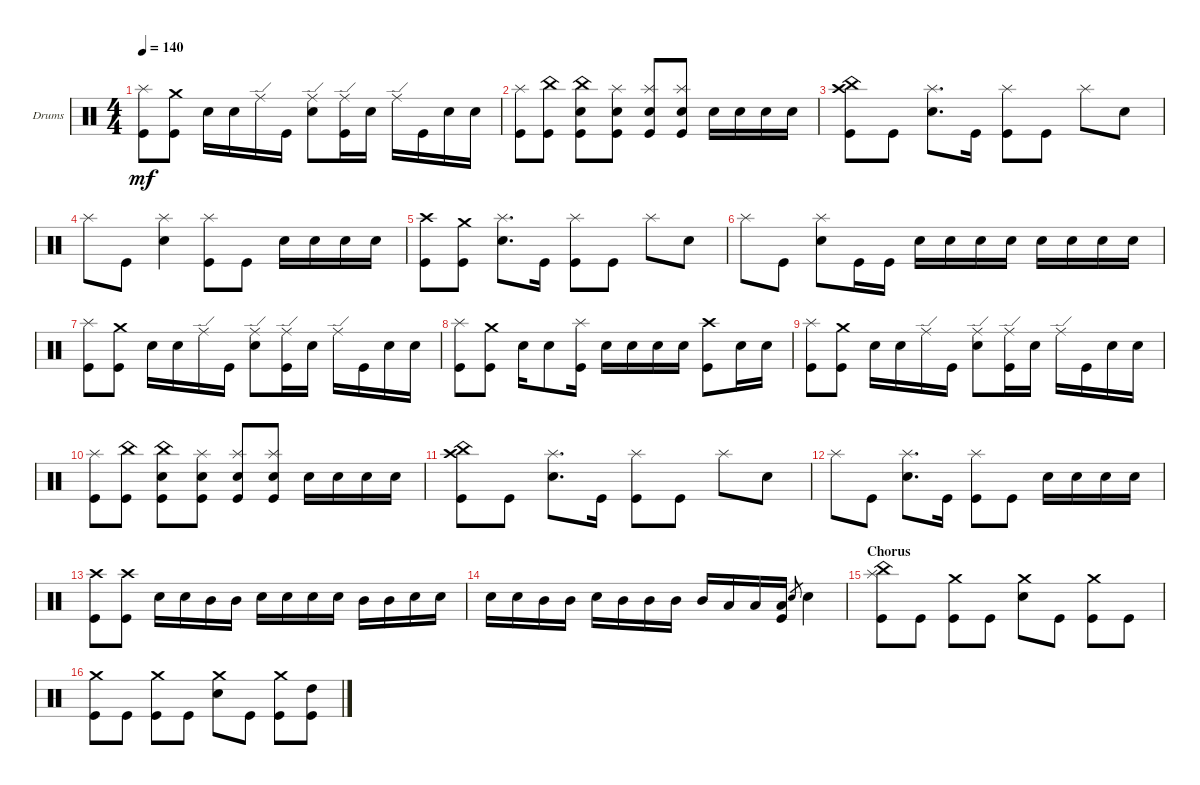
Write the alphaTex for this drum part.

\bracketExtendMode groupsimilarinstruments
\firstSystemTrackNameOrientation horizontal
\otherSystemsTrackNameOrientation horizontal
\track ("Drumkit" "Drums") {instrument percussion}
\staff {score}
\articulation defaults
\ts (4 4)
\tempo 140
\clef neutral
\ks c
("Kick (hit)" "Splash (hit)").8{dy mf} ("Kick (hit)" "Crash medium (hit)").8 "Snare (hit) 2".16 "Snare (hit) 2".16 "Ride (edge)".16 "Kick (hit)".16 ("Snare (hit) 2" "Ride (edge)").8 ("Kick (hit)" "Ride (edge)").16 "Snare (hit) 2".16 "Ride (edge)".16 "Kick (hit)".16 "Snare (hit) 2".16 "Snare (hit) 2".16 |
("Kick (hit)" "Splash (hit)").8 ("Kick (hit)" "China (hit)").8 ("Kick (hit)" "China (hit)" "Snare (hit) 2").8 ("Kick (hit)" "Snare (hit) 2" "Splash (hit)").8 ("Kick (hit)" "Snare (hit) 2" "Splash (hit)").8 ("Kick (hit)" "Snare (hit) 2" "Splash (hit)").8 "Snare (hit) 2".16 "Snare (hit) 2".16 "Snare (hit) 2".16 "Snare (hit) 2".16 |
("Kick (hit)" "China (hit)" "Crash high (hit)").8 "Kick (hit)".8 ("Snare (hit) 2" "Splash (hit)").8{d} "Kick (hit)".16 ("Kick (hit)" "Splash (hit)").8 "Kick (hit)".8 "Splash (hit)".8 "Snare (hit) 2".8 |
"Splash (hit)".8 "Kick (hit)".8 ("Snare (hit) 2" "Splash (hit)").4 ("Kick (hit)" "Splash (hit)").8 "Kick (hit)".8 "Snare (hit) 2".16 "Snare (hit) 2".16 "Snare (hit) 2".16 "Snare (hit) 2".16 |
("Kick (hit)" "Crash high (hit)").8 ("Kick (hit)" "Crash medium (hit)").8 ("Snare (hit) 2" "Splash (hit)").8{d} "Kick (hit)".16 ("Kick (hit)" "Splash (hit)").8 "Kick (hit)".8 "Splash (hit)".8 "Snare (hit) 2".8 |
"Splash (hit)".8 "Kick (hit)".8 ("Snare (hit) 2" "Splash (hit)").8 "Kick (hit)".16 "Kick (hit)".16 "Snare (hit) 2".16 "Snare (hit) 2".16 "Snare (hit) 2".16 "Snare (hit) 2".16 "Snare (hit) 2".16 "Snare (hit) 2".16 "Snare (hit) 2".16 "Snare (hit) 2".16 |
("Kick (hit)" "Splash (hit)").8 ("Kick (hit)" "Crash medium (hit)").8 "Snare (hit) 2".16 "Snare (hit) 2".16 "Ride (edge)".16 "Kick (hit)".16 ("Snare (hit) 2" "Ride (edge)").8 ("Kick (hit)" "Ride (edge)").16 "Snare (hit) 2".16 "Ride (edge)".16 "Kick (hit)".16 "Snare (hit) 2".16 "Snare (hit) 2".16 |
("Kick (hit)" "Splash (hit)").8 ("Kick (hit)" "Crash medium (hit)").8 "Snare (hit) 2".16 "Snare (hit) 2".8 ("Kick (hit)" "Splash (hit)").16 "Snare (hit) 2".16 "Snare (hit) 2".16 "Snare (hit) 2".16 "Snare (hit) 2".16 ("Crash high (hit)" "Kick (hit)").8 "Snare (hit) 2".16 "Snare (hit) 2".16 |
("Kick (hit)" "Splash (hit)").8 ("Kick (hit)" "Crash medium (hit)").8 "Snare (hit) 2".16 "Snare (hit) 2".16 "Ride (edge)".16 "Kick (hit)".16 ("Snare (hit) 2" "Ride (edge)").8 ("Kick (hit)" "Ride (edge)").16 "Snare (hit) 2".16 "Ride (edge)".16 "Kick (hit)".16 "Snare (hit) 2".16 "Snare (hit) 2".16 |
("Kick (hit)" "Splash (hit)").8 ("Kick (hit)" "China (hit)").8 ("Kick (hit)" "China (hit)" "Snare (hit) 2").8 ("Kick (hit)" "Snare (hit) 2" "Splash (hit)").8 ("Kick (hit)" "Snare (hit) 2" "Splash (hit)").8 ("Kick (hit)" "Snare (hit) 2" "Splash (hit)").8 "Snare (hit) 2".16 "Snare (hit) 2".16 "Snare (hit) 2".16 "Snare (hit) 2".16 |
("Kick (hit)" "China (hit)" "Crash high (hit)").8 "Kick (hit)".8 ("Snare (hit) 2" "Splash (hit)").8{d} "Kick (hit)".16 ("Kick (hit)" "Splash (hit)").8 "Kick (hit)".8 "Splash (hit)".8 "Snare (hit) 2".8 |
"Splash (hit)".8 "Kick (hit)".8 ("Snare (hit) 2" "Splash (hit)").8{d} "Kick (hit)".16 ("Kick (hit)" "Splash (hit)").8 "Kick (hit)".8 "Snare (hit) 2".16 "Snare (hit) 2".16 "Snare (hit) 2".16 "Snare (hit) 2".16 |
("Kick (hit)" "Crash high (hit)").8 ("Kick (hit)" "Crash high (hit)").8 "Snare (hit) 2".16 "Snare (hit) 2".16 "Mid Tom (hit)".16 "Mid Tom (hit)".16 "Snare (hit) 2".16 "Snare (hit) 2".16 "Snare (hit) 2".16 "Snare (hit) 2".16 "Mid Tom (hit)".16 "Mid Tom (hit)".16 "Snare (hit) 2".16 "Snare (hit) 2".16 |
"Snare (hit) 2".16 "Snare (hit) 2".16 "Mid Tom (hit)".16 "Mid Tom (hit)".16 "Snare (hit) 2".16 "Mid Tom (hit)".16 "Mid Tom (hit)".16 "Mid Tom (hit)".16 "Mid Tom (hit)".16 "Low Tom (hit)".16 "Low Tom (hit)".16 ("Kick (hit)" "Low Tom (hit)").16 "Snare (hit) 2".8{gr} "Snare (hit) 2".4 |
\section ("" "Chorus")
("China (hit)" "Splash (hit)" "Kick (hit)").8 "Kick (hit)".8 ("Kick (hit)" "Crash medium (hit)").8 "Kick (hit)".8 ("Snare (hit) 2" "Crash medium (hit)").8 "Kick (hit)".8 ("Kick (hit)" "Crash medium (hit)").8 "Kick (hit)".8 |
("Kick (hit)" "Crash medium (hit)").8 "Kick (hit)".8 ("Kick (hit)" "Crash medium (hit)").8 "Kick (hit)".8 ("Snare (hit) 2" "Crash medium (hit)").8 "Kick (hit)".8 ("Kick (hit)" "Crash medium (hit)").8 ("Kick (hit)" "High Tom (hit)").8
